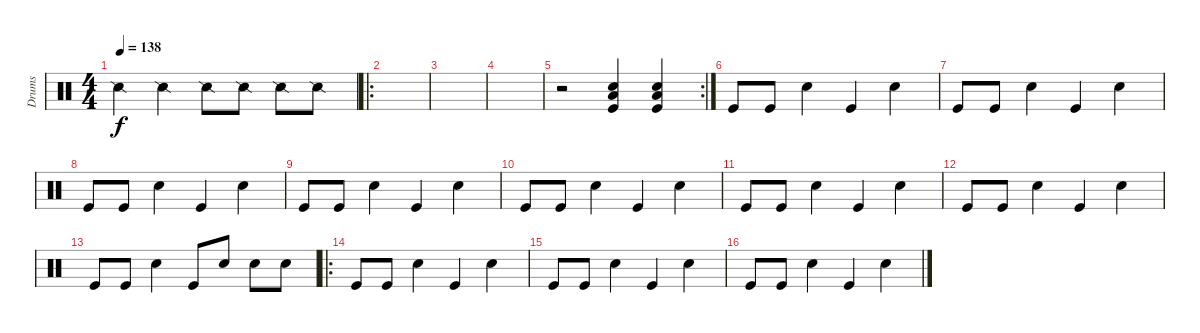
\track ("Drums" "Drums") {instrument percussion}
\staff {score}
\articulation defaults
\ts (4 4)
\tempo 138
\clef neutral
\ks c "Snare (side stick) 2".4{dy f} "Snare (side stick) 2".4 "Snare (side stick) 2".8 "Snare (side stick) 2".8 "Snare (side stick) 2".8 "Snare (side stick) 2".8
|
\ro
|
|
|
\rc 2
r.2 ("Low Floor Tom (hit)" "Snare (hit) 2" "Kick (hit)").4 ("Low Floor Tom (hit)" "Snare (hit) 2" "Kick (hit)").4 |
"Kick (hit)".8 "Kick (hit)".8 "Snare (hit) 2".4 "Kick (hit)".4 "Snare (hit) 2".4 |
"Kick (hit)".8 "Kick (hit)".8 "Snare (hit) 2".4 "Kick (hit)".4 "Snare (hit) 2".4 |
"Kick (hit)".8 "Kick (hit)".8 "Snare (hit) 2".4 "Kick (hit)".4 "Snare (hit) 2".4 |
"Kick (hit)".8 "Kick (hit)".8 "Snare (hit) 2".4 "Kick (hit)".4 "Snare (hit) 2".4 |
"Kick (hit)".8 "Kick (hit)".8 "Snare (hit) 2".4 "Kick (hit)".4 "Snare (hit) 2".4 |
"Kick (hit)".8 "Kick (hit)".8 "Snare (hit) 2".4 "Kick (hit)".4 "Snare (hit) 2".4 |
"Kick (hit)".8 "Kick (hit)".8 "Snare (hit) 2".4 "Kick (hit)".4 "Snare (hit) 2".4 |
"Kick (hit)".8 "Kick (hit)".8 "Snare (hit) 2".4 "Kick (hit)".8 "Snare (hit) 2".8 "Snare (hit) 2".8 "Snare (hit) 2".8 |
\ro "Kick (hit)".8 "Kick (hit)".8 "Snare (hit) 2".4 "Kick (hit)".4 "Snare (hit) 2".4
|
"Kick (hit)".8 "Kick (hit)".8 "Snare (hit) 2".4 "Kick (hit)".4 "Snare (hit) 2".4 |
"Kick (hit)".8 "Kick (hit)".8 "Snare (hit) 2".4 "Kick (hit)".4 "Snare (hit) 2".4
